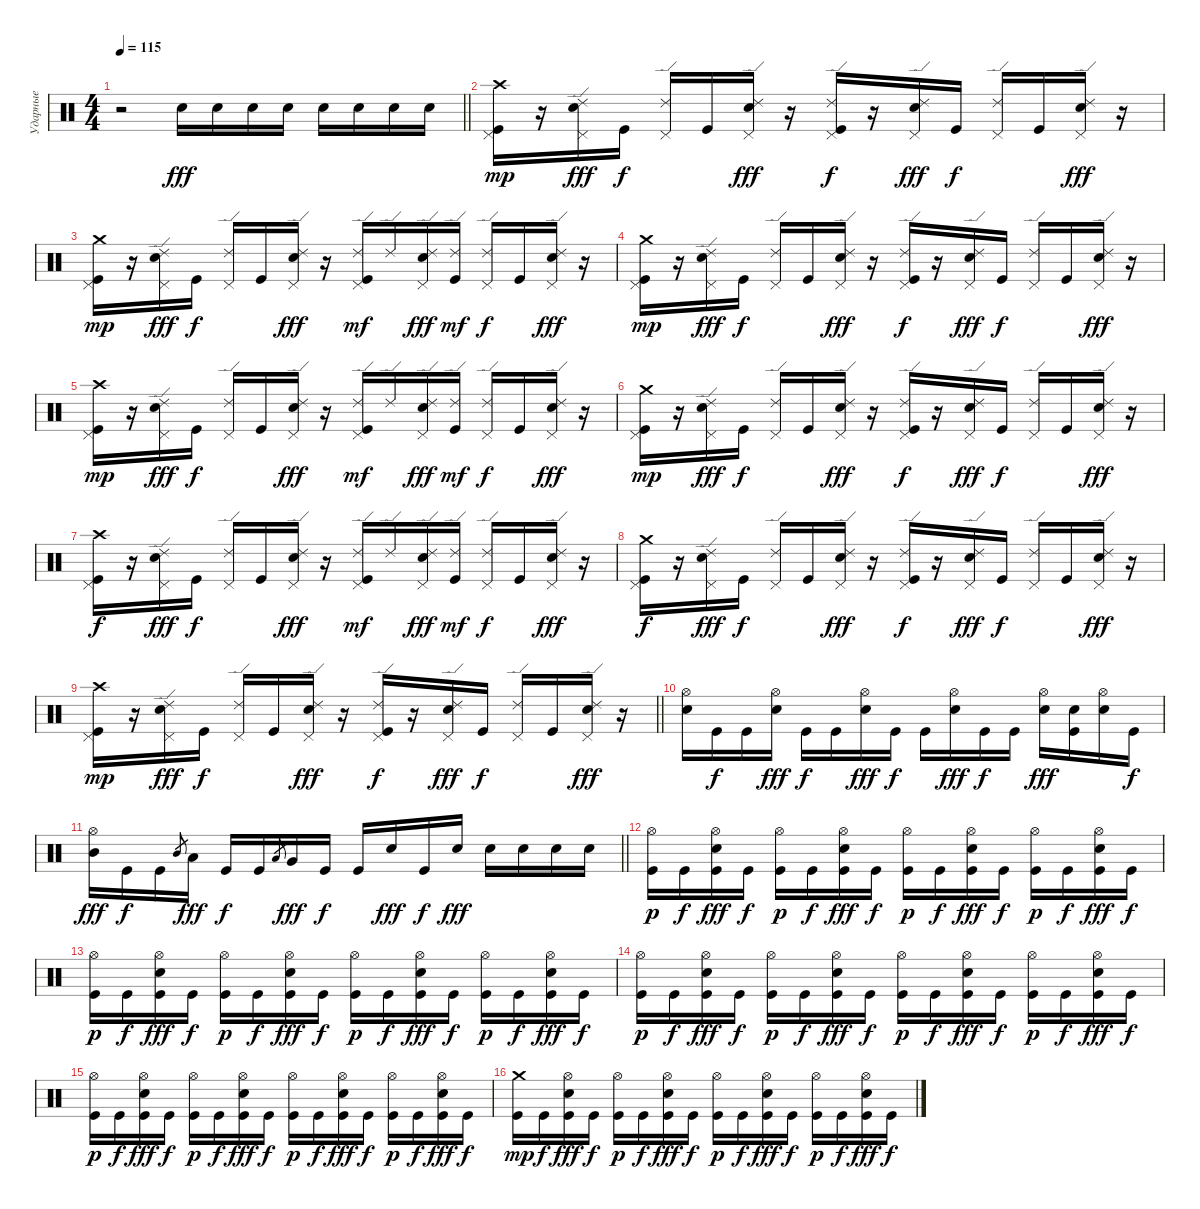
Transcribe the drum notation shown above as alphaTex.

\track ("Ударные" "Ударные") {instrument percussion}
\staff {score}
\articulation defaults
\ts (4 4)
\tempo 115
\clef neutral
\barLineRight lightlight
\ks c
r.2{dy fff} "Electric Snare (hit)".16 "Electric Snare (hit)".16 "Electric Snare (hit)".16 "Electric Snare (hit)".16 "Electric Snare (hit)".16 "Electric Snare (hit)".16 "Electric Snare (hit)".16 "Electric Snare (hit)".16 |
\section ("" "")
("Crash high (hit)" "Pedal Hi-Hat (hit)" "Kick (hit)").16{dy mp} r.16 ("Ride (edge) 2" "Pedal Hi-Hat (hit)" "Electric Snare (hit)").16{dy fff} "Kick (hit)".16{dy f} ("Ride (edge) 2" "Pedal Hi-Hat (hit)").16 "Kick (hit)".16 ("Ride (edge) 2" "Pedal Hi-Hat (hit)" "Electric Snare (hit)").16{dy fff} r.16 ("Ride (edge) 2" "Pedal Hi-Hat (hit)" "Kick (hit)").16{dy f} r.16 ("Ride (edge) 2" "Pedal Hi-Hat (hit)" "Electric Snare (hit)").16{dy fff} "Kick (hit)".16{dy f} ("Ride (edge) 2" "Pedal Hi-Hat (hit)").16 "Kick (hit)".16 ("Ride (edge) 2" "Pedal Hi-Hat (hit)" "Electric Snare (hit)").16{dy fff} r.16 |
("Crash medium (hit)" "Pedal Hi-Hat (hit)" "Kick (hit)").16{dy mp} r.16 ("Ride (edge) 2" "Pedal Hi-Hat (hit)" "Electric Snare (hit)").16{dy fff} "Kick (hit)".16{dy f} ("Ride (edge) 2" "Pedal Hi-Hat (hit)").16 "Kick (hit)".16 ("Ride (edge) 2" "Pedal Hi-Hat (hit)" "Electric Snare (hit)").16{dy fff} r.16 ("Ride (edge) 2" "Pedal Hi-Hat (hit)" "Kick (hit)").16{dy mf} "Ride (edge) 2".16 ("Ride (edge) 2" "Pedal Hi-Hat (hit)" "Electric Snare (hit)").16{dy fff} ("Ride (edge) 2" "Kick (hit)").16{dy mf} ("Ride (edge) 2" "Pedal Hi-Hat (hit)").16{dy f} "Kick (hit)".16 ("Ride (edge) 2" "Pedal Hi-Hat (hit)" "Electric Snare (hit)").16{dy fff} r.16 |
("Crash medium (hit)" "Pedal Hi-Hat (hit)" "Kick (hit)").16{dy mp} r.16 ("Ride (edge) 2" "Pedal Hi-Hat (hit)" "Electric Snare (hit)").16{dy fff} "Kick (hit)".16{dy f} ("Ride (edge) 2" "Pedal Hi-Hat (hit)").16 "Kick (hit)".16 ("Ride (edge) 2" "Pedal Hi-Hat (hit)" "Electric Snare (hit)").16{dy fff} r.16 ("Ride (edge) 2" "Pedal Hi-Hat (hit)" "Kick (hit)").16{dy f} r.16 ("Ride (edge) 2" "Pedal Hi-Hat (hit)" "Electric Snare (hit)").16{dy fff} "Kick (hit)".16{dy f} ("Ride (edge) 2" "Pedal Hi-Hat (hit)").16 "Kick (hit)".16 ("Ride (edge) 2" "Pedal Hi-Hat (hit)" "Electric Snare (hit)").16{dy fff} r.16 |
("Crash high (hit)" "Pedal Hi-Hat (hit)" "Kick (hit)").16{dy mp} r.16 ("Ride (edge) 2" "Pedal Hi-Hat (hit)" "Electric Snare (hit)").16{dy fff} "Kick (hit)".16{dy f} ("Ride (edge) 2" "Pedal Hi-Hat (hit)").16 "Kick (hit)".16 ("Ride (edge) 2" "Pedal Hi-Hat (hit)" "Electric Snare (hit)").16{dy fff} r.16 ("Ride (edge) 2" "Pedal Hi-Hat (hit)" "Kick (hit)").16{dy mf} "Ride (edge) 2".16 ("Ride (edge) 2" "Pedal Hi-Hat (hit)" "Electric Snare (hit)").16{dy fff} ("Ride (edge) 2" "Kick (hit)").16{dy mf} ("Ride (edge) 2" "Pedal Hi-Hat (hit)").16{dy f} "Kick (hit)".16 ("Ride (edge) 2" "Pedal Hi-Hat (hit)" "Electric Snare (hit)").16{dy fff} r.16 |
("Crash medium (hit)" "Pedal Hi-Hat (hit)" "Kick (hit)").16{dy mp} r.16 ("Ride (edge) 2" "Pedal Hi-Hat (hit)" "Electric Snare (hit)").16{dy fff} "Kick (hit)".16{dy f} ("Ride (edge) 2" "Pedal Hi-Hat (hit)").16 "Kick (hit)".16 ("Ride (edge) 2" "Pedal Hi-Hat (hit)" "Electric Snare (hit)").16{dy fff} r.16 ("Ride (edge) 2" "Pedal Hi-Hat (hit)" "Kick (hit)").16{dy f} r.16 ("Ride (edge) 2" "Pedal Hi-Hat (hit)" "Electric Snare (hit)").16{dy fff} "Kick (hit)".16{dy f} ("Ride (edge) 2" "Pedal Hi-Hat (hit)").16 "Kick (hit)".16 ("Ride (edge) 2" "Pedal Hi-Hat (hit)" "Electric Snare (hit)").16{dy fff} r.16 |
("Crash high (hit)" "Pedal Hi-Hat (hit)" "Kick (hit)").16{dy f} r.16 ("Ride (edge) 2" "Pedal Hi-Hat (hit)" "Electric Snare (hit)").16{dy fff} "Kick (hit)".16{dy f} ("Ride (edge) 2" "Pedal Hi-Hat (hit)").16 "Kick (hit)".16 ("Ride (edge) 2" "Pedal Hi-Hat (hit)" "Electric Snare (hit)").16{dy fff} r.16 ("Ride (edge) 2" "Pedal Hi-Hat (hit)" "Kick (hit)").16{dy mf} "Ride (edge) 2".16 ("Ride (edge) 2" "Pedal Hi-Hat (hit)" "Electric Snare (hit)").16{dy fff} ("Ride (edge) 2" "Kick (hit)").16{dy mf} ("Ride (edge) 2" "Pedal Hi-Hat (hit)").16{dy f} "Kick (hit)".16 ("Ride (edge) 2" "Pedal Hi-Hat (hit)" "Electric Snare (hit)").16{dy fff} r.16 |
("Crash medium (hit)" "Pedal Hi-Hat (hit)" "Kick (hit)").16{dy f} r.16 ("Ride (edge) 2" "Pedal Hi-Hat (hit)" "Electric Snare (hit)").16{dy fff} "Kick (hit)".16{dy f} ("Ride (edge) 2" "Pedal Hi-Hat (hit)").16 "Kick (hit)".16 ("Ride (edge) 2" "Pedal Hi-Hat (hit)" "Electric Snare (hit)").16{dy fff} r.16 ("Ride (edge) 2" "Pedal Hi-Hat (hit)" "Kick (hit)").16{dy f} r.16 ("Ride (edge) 2" "Pedal Hi-Hat (hit)" "Electric Snare (hit)").16{dy fff} "Kick (hit)".16{dy f} ("Ride (edge) 2" "Pedal Hi-Hat (hit)").16 "Kick (hit)".16 ("Ride (edge) 2" "Pedal Hi-Hat (hit)" "Electric Snare (hit)").16{dy fff} r.16 |
\barLineRight lightlight
("Crash high (hit)" "Pedal Hi-Hat (hit)" "Kick (hit)").16{dy mp} r.16 ("Ride (edge) 2" "Pedal Hi-Hat (hit)" "Electric Snare (hit)").16{dy fff} "Kick (hit)".16{dy f} ("Ride (edge) 2" "Pedal Hi-Hat (hit)").16 "Kick (hit)".16 ("Ride (edge) 2" "Pedal Hi-Hat (hit)" "Electric Snare (hit)").16{dy fff} r.16 ("Ride (edge) 2" "Pedal Hi-Hat (hit)" "Kick (hit)").16{dy f} r.16 ("Ride (edge) 2" "Pedal Hi-Hat (hit)" "Electric Snare (hit)").16{dy fff} "Kick (hit)".16{dy f} ("Ride (edge) 2" "Pedal Hi-Hat (hit)").16 "Kick (hit)".16 ("Ride (edge) 2" "Pedal Hi-Hat (hit)" "Electric Snare (hit)").16{dy fff} r.16 |
\section ("" "")
("Hi-Hat (open)" "Electric Snare (hit)").16 "Kick (hit)".16{dy f} "Kick (hit)".16 ("Hi-Hat (open)" "Electric Snare (hit)").16{dy fff} "Kick (hit)".16{dy f} "Kick (hit)".16 ("Hi-Hat (open)" "Electric Snare (hit)").16{dy fff} "Kick (hit)".16{dy f} "Kick (hit)".16 ("Hi-Hat (open)" "Electric Snare (hit)").16{dy fff} "Kick (hit)".16{dy f} "Kick (hit)".16 ("Hi-Hat (open)" "Electric Snare (hit)").16{dy fff} ("Electric Snare (hit)" "Kick (hit)").16 ("Hi-Hat (open)" "Electric Snare (hit)").16 "Kick (hit)".16{dy f} |
\barLineRight lightlight
("Hi-Hat (open)" "Mid Tom (hit)").16{dy fff} "Kick (hit)".16{dy f} "Kick (hit)".16 "Mid Tom (hit)".8{gr} "Low Tom (hit)".16{dy fff} "Kick (hit)".16{dy f} "Kick (hit)".16 "Low Tom (hit)".8{gr} "Very Low Tom (hit)".16{dy fff} "Kick (hit)".16{dy f} "Kick (hit)".16 "Electric Snare (hit)".16{dy fff} "Kick (hit)".16{dy f} "Electric Snare (hit)".16{dy fff} "Electric Snare (hit)".16 "Electric Snare (hit)".16 "Electric Snare (hit)".16 "Electric Snare (hit)".16 |
\section ("" "")
("Hi-Hat (open)" "Kick (hit)").16{dy p} "Kick (hit)".16{dy f} ("Hi-Hat (open)" "Electric Snare (hit)" "Kick (hit)").16{dy fff} "Kick (hit)".16{dy f} ("Hi-Hat (open)" "Kick (hit)").16{dy p} "Kick (hit)".16{dy f} ("Hi-Hat (open)" "Electric Snare (hit)" "Kick (hit)").16{dy fff} "Kick (hit)".16{dy f} ("Hi-Hat (open)" "Kick (hit)").16{dy p} "Kick (hit)".16{dy f} ("Hi-Hat (open)" "Electric Snare (hit)" "Kick (hit)").16{dy fff} "Kick (hit)".16{dy f} ("Hi-Hat (open)" "Kick (hit)").16{dy p} "Kick (hit)".16{dy f} ("Hi-Hat (open)" "Electric Snare (hit)" "Kick (hit)").16{dy fff} "Kick (hit)".16{dy f} |
("Hi-Hat (open)" "Kick (hit)").16{dy p} "Kick (hit)".16{dy f} ("Hi-Hat (open)" "Electric Snare (hit)" "Kick (hit)").16{dy fff} "Kick (hit)".16{dy f} ("Hi-Hat (open)" "Kick (hit)").16{dy p} "Kick (hit)".16{dy f} ("Hi-Hat (open)" "Electric Snare (hit)" "Kick (hit)").16{dy fff} "Kick (hit)".16{dy f} ("Hi-Hat (open)" "Kick (hit)").16{dy p} "Kick (hit)".16{dy f} ("Hi-Hat (open)" "Electric Snare (hit)" "Kick (hit)").16{dy fff} "Kick (hit)".16{dy f} ("Hi-Hat (open)" "Kick (hit)").16{dy p} "Kick (hit)".16{dy f} ("Hi-Hat (open)" "Electric Snare (hit)" "Kick (hit)").16{dy fff} "Kick (hit)".16{dy f} |
("Hi-Hat (open)" "Kick (hit)").16{dy p} "Kick (hit)".16{dy f} ("Hi-Hat (open)" "Electric Snare (hit)" "Kick (hit)").16{dy fff} "Kick (hit)".16{dy f} ("Hi-Hat (open)" "Kick (hit)").16{dy p} "Kick (hit)".16{dy f} ("Hi-Hat (open)" "Electric Snare (hit)" "Kick (hit)").16{dy fff} "Kick (hit)".16{dy f} ("Hi-Hat (open)" "Kick (hit)").16{dy p} "Kick (hit)".16{dy f} ("Hi-Hat (open)" "Electric Snare (hit)" "Kick (hit)").16{dy fff} "Kick (hit)".16{dy f} ("Hi-Hat (open)" "Kick (hit)").16{dy p} "Kick (hit)".16{dy f} ("Hi-Hat (open)" "Electric Snare (hit)" "Kick (hit)").16{dy fff} "Kick (hit)".16{dy f} |
("Hi-Hat (open)" "Kick (hit)").16{dy p} "Kick (hit)".16{dy f} ("Hi-Hat (open)" "Electric Snare (hit)" "Kick (hit)").16{dy fff} "Kick (hit)".16{dy f} ("Hi-Hat (open)" "Kick (hit)").16{dy p} "Kick (hit)".16{dy f} ("Hi-Hat (open)" "Electric Snare (hit)" "Kick (hit)").16{dy fff} "Kick (hit)".16{dy f} ("Hi-Hat (open)" "Kick (hit)").16{dy p} "Kick (hit)".16{dy f} ("Hi-Hat (open)" "Electric Snare (hit)" "Kick (hit)").16{dy fff} "Kick (hit)".16{dy f} ("Hi-Hat (open)" "Kick (hit)").16{dy p} "Kick (hit)".16{dy f} ("Hi-Hat (open)" "Electric Snare (hit)" "Kick (hit)").16{dy fff} "Kick (hit)".16{dy f} |
("Crash medium (hit)" "Kick (hit)").16{dy mp} "Kick (hit)".16{dy f} ("Hi-Hat (open)" "Electric Snare (hit)" "Kick (hit)").16{dy fff} "Kick (hit)".16{dy f} ("Hi-Hat (open)" "Kick (hit)").16{dy p} "Kick (hit)".16{dy f} ("Hi-Hat (open)" "Electric Snare (hit)" "Kick (hit)").16{dy fff} "Kick (hit)".16{dy f} ("Hi-Hat (open)" "Kick (hit)").16{dy p} "Kick (hit)".16{dy f} ("Hi-Hat (open)" "Electric Snare (hit)" "Kick (hit)").16{dy fff} "Kick (hit)".16{dy f} ("Hi-Hat (open)" "Kick (hit)").16{dy p} "Kick (hit)".16{dy f} ("Hi-Hat (open)" "Electric Snare (hit)" "Kick (hit)").16{dy fff} "Kick (hit)".16{dy f}
